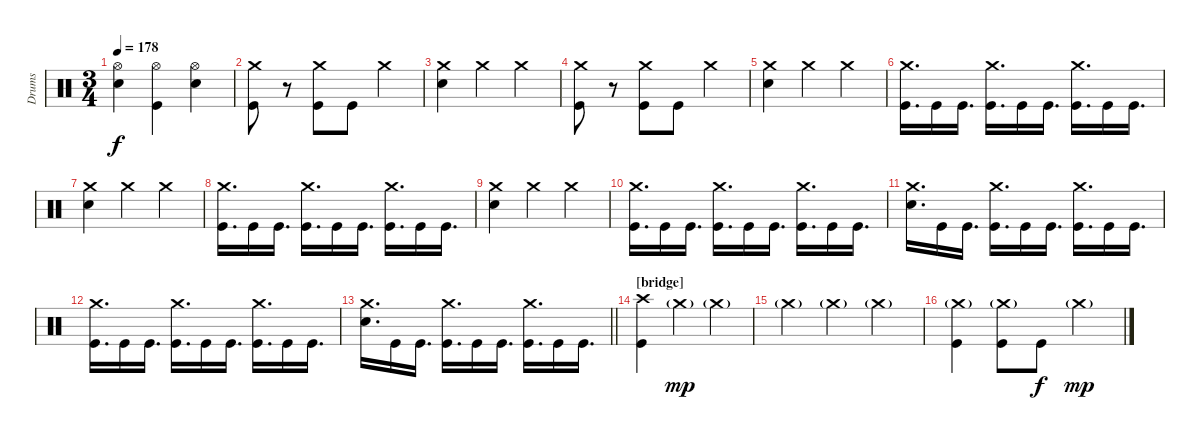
\track ("Drums" "Drums") {instrument percussion}
\staff {score}
\articulation defaults
\ts (3 4)
\tempo 178
\clef neutral
\ks c
("Hi-Hat (open)" "Snare (hit) 2").4{dy f} ("Hi-Hat (open)" "Kick (hit)").4 ("Hi-Hat (open)" "Snare (hit) 2").4 |
("Crash medium (hit)" "Kick (hit)").8 r.8 ("Crash medium (hit)" "Kick (hit)").8 "Kick (hit)".8 "Crash medium (hit)".4 |
("Crash medium (hit)" "Snare (hit) 2").4 "Crash medium (hit)".4 "Crash medium (hit)".4 |
("Crash medium (hit)" "Kick (hit)").8 r.8 ("Crash medium (hit)" "Kick (hit)").8 "Kick (hit)".8 "Crash medium (hit)".4 |
("Crash medium (hit)" "Snare (hit) 2").4 "Crash medium (hit)".4 "Crash medium (hit)".4 |
("Kick (hit)" "Crash medium (hit)").16{d} "Kick (hit)".16 "Kick (hit)".16{d} ("Kick (hit)" "Crash medium (hit)").16{d} "Kick (hit)".16 "Kick (hit)".16{d} ("Kick (hit)" "Crash medium (hit)").16{d} "Kick (hit)".16 "Kick (hit)".16{d} |
("Snare (hit) 2" "Crash medium (hit)").4 "Crash medium (hit)".4 "Crash medium (hit)".4 |
("Kick (hit)" "Crash medium (hit)").16{d} "Kick (hit)".16 "Kick (hit)".16{d} ("Kick (hit)" "Crash medium (hit)").16{d} "Kick (hit)".16 "Kick (hit)".16{d} ("Kick (hit)" "Crash medium (hit)").16{d} "Kick (hit)".16 "Kick (hit)".16{d} |
("Snare (hit) 2" "Crash medium (hit)").4 "Crash medium (hit)".4 "Crash medium (hit)".4 |
("Kick (hit)" "Crash medium (hit)").16{d} "Kick (hit)".16 "Kick (hit)".16{d} ("Kick (hit)" "Crash medium (hit)").16{d} "Kick (hit)".16 "Kick (hit)".16{d} ("Kick (hit)" "Crash medium (hit)").16{d} "Kick (hit)".16 "Kick (hit)".16{d} |
("Snare (hit) 2" "Crash medium (hit)").16{d} "Kick (hit)".16 "Kick (hit)".16{d} ("Kick (hit)" "Crash medium (hit)").16{d} "Kick (hit)".16 "Kick (hit)".16{d} ("Kick (hit)" "Crash medium (hit)").16{d} "Kick (hit)".16 "Kick (hit)".16{d} |
("Kick (hit)" "Crash medium (hit)").16{d} "Kick (hit)".16 "Kick (hit)".16{d} ("Kick (hit)" "Crash medium (hit)").16{d} "Kick (hit)".16 "Kick (hit)".16{d} ("Kick (hit)" "Crash medium (hit)").16{d} "Kick (hit)".16 "Kick (hit)".16{d} |
\barLineRight lightlight
("Snare (hit) 2" "Crash medium (hit)").16{d} "Kick (hit)".16 "Kick (hit)".16{d} ("Kick (hit)" "Crash medium (hit)").16{d} "Kick (hit)".16 "Kick (hit)".16{d} ("Kick (hit)" "Crash medium (hit)").16{d} "Kick (hit)".16 "Kick (hit)".16{d} |
\section ("" "[bridge]")
("Crash high (hit)" "Kick (hit)").4 "Crash medium (hit)"{g}.4{dy mp} "Crash medium (hit)"{g}.4 |
"Crash medium (hit)"{g}.4 "Crash medium (hit)"{g}.4 "Crash medium (hit)"{g}.4 |
("Crash medium (hit)"{g} "Kick (hit)").4 ("Crash medium (hit)"{g} "Kick (hit)").8 "Kick (hit)".8{dy f} "Crash medium (hit)"{g}.4{dy mp}
